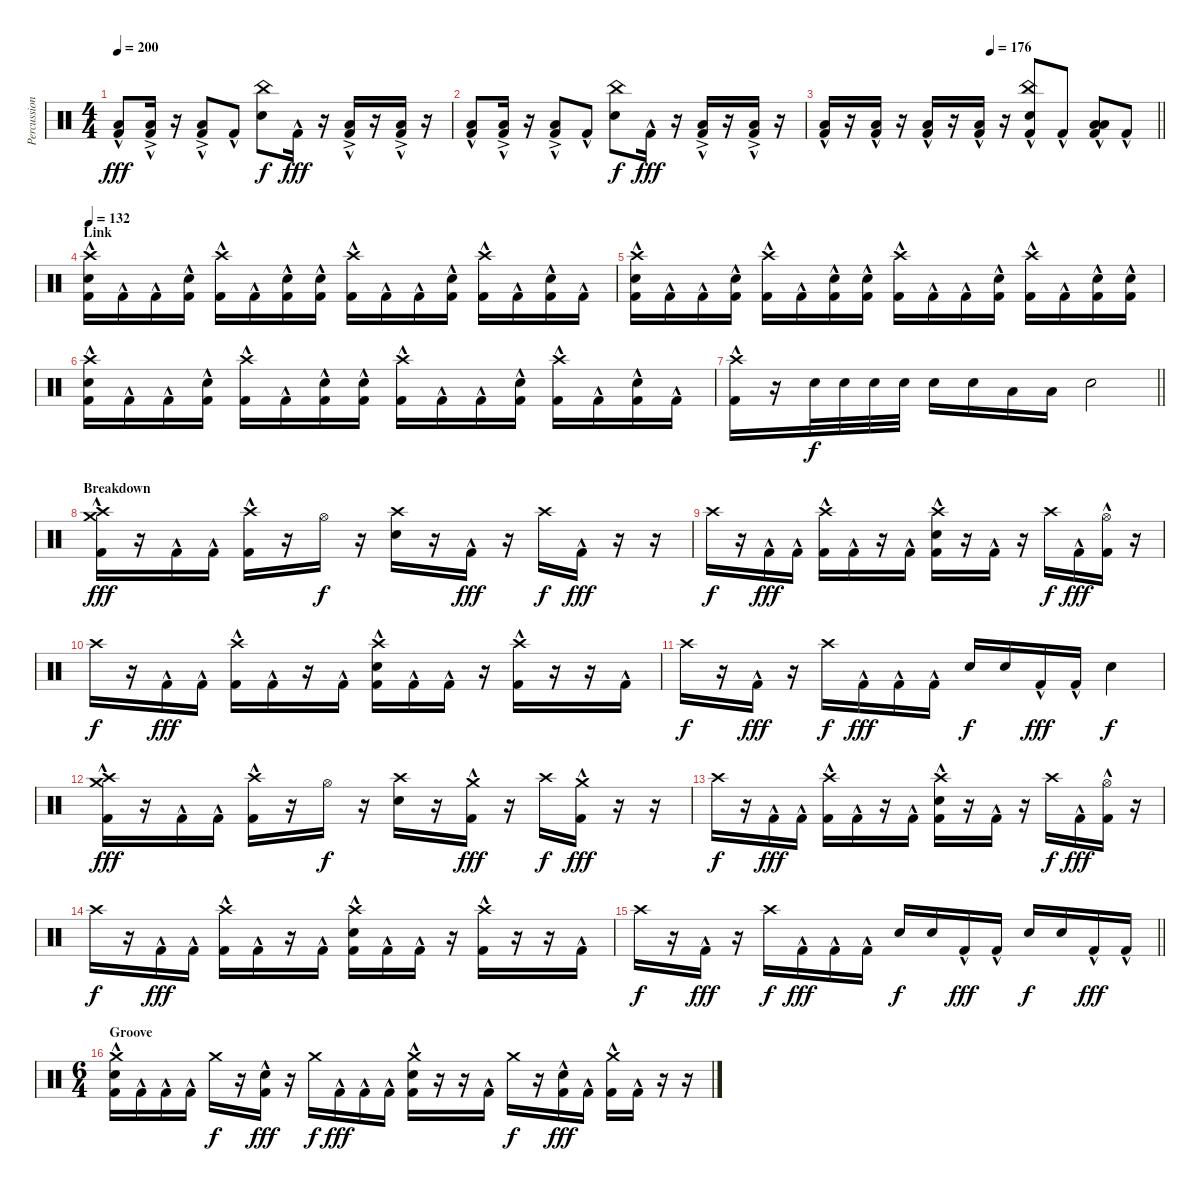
\track ("Percussion" "Percussion") {instrument percussion}
\staff {score}
\articulation defaults
\ts (4 4)
\tempo 200
\clef neutral
\ks c
("Low Tom (hit)" "Kick (hit) 2"{hac}).8{dy fff} ("Low Floor Tom (hit)"{ac} "Kick (hit) 2"{hac}).16 r.16 ("Low Tom (hit)"{ac} "Kick (hit) 2"{hac}).8 "Kick (hit) 2"{hac}.8 ("China (hit)" "Electric Snare (hit)").8{dy f} "Kick (hit) 2"{hac}.16{dy fff} r.16 ("Low Tom (hit)"{ac} "Kick (hit) 2"{hac}).16 r.16 ("Low Floor Tom (hit)"{ac} "Kick (hit) 2"{hac}).16 r.16 |
("Low Tom (hit)" "Kick (hit) 2"{hac}).8 ("Low Floor Tom (hit)"{ac} "Kick (hit) 2"{hac}).16 r.16 ("Low Tom (hit)"{ac} "Kick (hit) 2"{hac}).8 "Kick (hit) 2"{hac}.8 ("China (hit)" "Electric Snare (hit)").8{dy f} "Kick (hit) 2"{hac}.16{dy fff} r.16 ("Low Tom (hit)"{ac} "Kick (hit) 2"{hac}).16 r.16 ("Low Floor Tom (hit)"{ac} "Kick (hit) 2"{hac}).16 r.16 |
\tempo (176 0.5)
\barLineRight lightlight
("Low Tom (hit)" "Kick (hit) 2"{hac}).16 r.16 ("Low Floor Tom (hit)" "Kick (hit) 2"{hac}).16 r.16 ("Low Tom (hit)" "Kick (hit) 2"{hac}).16 r.16 ("Low Floor Tom (hit)" "Kick (hit) 2"{hac}).16 r.16 ("China (hit)" "Electric Snare (hit)" "Kick (hit) 2"{hac}).8 "Kick (hit) 2"{hac}.8 ("Low Tom (hit)" "Low Floor Tom (hit)" "Kick (hit) 2"{hac}).8 "Kick (hit) 2"{hac}.8 |
\section ("" "Link")
\tempo 132
("Crash high (hit)" "Electric Snare (hit)" "Kick (hit) 2"{hac}).16 "Kick (hit) 2"{hac}.16 "Kick (hit) 2"{hac}.16 ("Electric Snare (hit)" "Kick (hit) 2"{hac}).16 ("Crash high (hit)" "Kick (hit) 2"{hac}).16 "Kick (hit) 2"{hac}.16 ("Electric Snare (hit)" "Kick (hit) 2"{hac}).16 ("Electric Snare (hit)" "Kick (hit) 2"{hac}).16 ("Crash high (hit)" "Kick (hit) 2"{hac}).16 "Kick (hit) 2"{hac}.16 "Kick (hit) 2"{hac}.16 ("Electric Snare (hit)" "Kick (hit) 2"{hac}).16 ("Crash high (hit)" "Kick (hit) 2"{hac}).16 "Kick (hit) 2"{hac}.16 ("Electric Snare (hit)" "Kick (hit) 2"{hac}).16 "Kick (hit) 2"{hac}.16 |
("Crash high (hit)" "Electric Snare (hit)" "Kick (hit) 2"{hac}).16 "Kick (hit) 2"{hac}.16 "Kick (hit) 2"{hac}.16 ("Electric Snare (hit)" "Kick (hit) 2"{hac}).16 ("Crash high (hit)" "Kick (hit) 2"{hac}).16 "Kick (hit) 2"{hac}.16 ("Electric Snare (hit)" "Kick (hit) 2"{hac}).16 ("Electric Snare (hit)" "Kick (hit) 2"{hac}).16 ("Crash high (hit)" "Kick (hit) 2"{hac}).16 "Kick (hit) 2"{hac}.16 "Kick (hit) 2"{hac}.16 ("Electric Snare (hit)" "Kick (hit) 2"{hac}).16 ("Crash high (hit)" "Kick (hit) 2"{hac}).16 "Kick (hit) 2"{hac}.16 ("Electric Snare (hit)" "Kick (hit) 2"{hac}).16 ("Electric Snare (hit)" "Kick (hit) 2"{hac}).16 |
("Crash high (hit)" "Electric Snare (hit)" "Kick (hit) 2"{hac}).16 "Kick (hit) 2"{hac}.16 "Kick (hit) 2"{hac}.16 ("Electric Snare (hit)" "Kick (hit) 2"{hac}).16 ("Crash high (hit)" "Kick (hit) 2"{hac}).16 "Kick (hit) 2"{hac}.16 ("Electric Snare (hit)" "Kick (hit) 2"{hac}).16 ("Electric Snare (hit)" "Kick (hit) 2"{hac}).16 ("Crash high (hit)" "Kick (hit) 2"{hac}).16 "Kick (hit) 2"{hac}.16 "Kick (hit) 2"{hac}.16 ("Electric Snare (hit)" "Kick (hit) 2"{hac}).16 ("Crash high (hit)" "Kick (hit) 2"{hac}).16 "Kick (hit) 2"{hac}.16 ("Electric Snare (hit)" "Kick (hit) 2"{hac}).16 "Kick (hit) 2"{hac}.16 |
\barLineRight lightlight
("Crash high (hit)" "Kick (hit) 2"{hac}).16 r.16 "Electric Snare (hit)".32{dy f} "Electric Snare (hit)".32 "Electric Snare (hit)".32 "Electric Snare (hit)".32 "Electric Snare (hit)".16 "Electric Snare (hit)".16 "Low Tom (hit)".16 "Low Tom (hit)".16 "Electric Snare (hit)".2 |
\section ("" "Breakdown")
("Crash high (hit)" "Crash medium (hit)" "Kick (hit) 2"{hac}).16{dy fff} r.16 "Kick (hit) 2"{hac}.16 "Kick (hit) 2"{hac}.16 ("Crash high (hit)" "Kick (hit) 2"{hac}).16 r.16 "Hi-Hat (open)".16{dy f} r.16 ("Crash high (hit)" "Electric Snare (hit)").16 r.16 "Kick (hit) 2"{hac}.16{dy fff} r.16 "Crash high (hit)".16{dy f} "Kick (hit) 2"{hac}.16{dy fff} r.16 r.16 |
"Crash high (hit)".16{dy f} r.16 "Kick (hit) 2"{hac}.16{dy fff} "Kick (hit) 2"{hac}.16 ("Crash high (hit)" "Kick (hit) 2"{hac}).16 "Kick (hit) 2"{hac}.16 r.16 "Kick (hit) 2"{hac}.16 ("Crash high (hit)" "Electric Snare (hit)" "Kick (hit) 2"{hac}).16 r.16 "Kick (hit) 2"{hac}.16 r.16 "Crash high (hit)".16{dy f} "Kick (hit) 2"{hac}.16{dy fff} ("Hi-Hat (open)" "Kick (hit) 2"{hac}).16 r.16 |
"Crash high (hit)".16{dy f} r.16 "Kick (hit) 2"{hac}.16{dy fff} "Kick (hit) 2"{hac}.16 ("Crash high (hit)" "Kick (hit) 2"{hac}).16 "Kick (hit) 2"{hac}.16 r.16 "Kick (hit) 2"{hac}.16 ("Crash high (hit)" "Electric Snare (hit)" "Kick (hit) 2"{hac}).16 "Kick (hit) 2"{hac}.16 "Kick (hit) 2"{hac}.16 r.16 ("Crash high (hit)" "Kick (hit) 2"{hac}).16 r.16 r.16 "Kick (hit) 2"{hac}.16 |
"Crash high (hit)".16{dy f} r.16 "Kick (hit) 2"{hac}.16{dy fff} r.16 "Crash high (hit)".16{dy f} "Kick (hit) 2"{hac}.16{dy fff} "Kick (hit) 2"{hac}.16 "Kick (hit) 2"{hac}.16 "Electric Snare (hit)".16{dy f} "Electric Snare (hit)".16 "Kick (hit) 2"{hac}.16{dy fff} "Kick (hit) 2"{hac}.16 "Electric Snare (hit)".4{dy f} |
("Crash high (hit)" "Crash medium (hit)" "Kick (hit) 2"{hac}).16{dy fff} r.16 "Kick (hit) 2"{hac}.16 "Kick (hit) 2"{hac}.16 ("Crash high (hit)" "Kick (hit) 2"{hac}).16 r.16 "Hi-Hat (open)".16{dy f} r.16 ("Crash high (hit)" "Electric Snare (hit)").16 r.16 ("Kick (hit) 2"{hac} "Crash medium (hit)").16{dy fff} r.16 "Crash high (hit)".16{dy f} ("Kick (hit) 2"{hac} "Crash medium (hit)").16{dy fff} r.16 r.16 |
"Crash high (hit)".16{dy f} r.16 "Kick (hit) 2"{hac}.16{dy fff} "Kick (hit) 2"{hac}.16 ("Crash high (hit)" "Kick (hit) 2"{hac}).16 "Kick (hit) 2"{hac}.16 r.16 "Kick (hit) 2"{hac}.16 ("Crash high (hit)" "Electric Snare (hit)" "Kick (hit) 2"{hac}).16 r.16 "Kick (hit) 2"{hac}.16 r.16 "Crash high (hit)".16{dy f} "Kick (hit) 2"{hac}.16{dy fff} ("Hi-Hat (open)" "Kick (hit) 2"{hac}).16 r.16 |
"Crash high (hit)".16{dy f} r.16 "Kick (hit) 2"{hac}.16{dy fff} "Kick (hit) 2"{hac}.16 ("Crash high (hit)" "Kick (hit) 2"{hac}).16 "Kick (hit) 2"{hac}.16 r.16 "Kick (hit) 2"{hac}.16 ("Crash high (hit)" "Electric Snare (hit)" "Kick (hit) 2"{hac}).16 "Kick (hit) 2"{hac}.16 "Kick (hit) 2"{hac}.16 r.16 ("Crash high (hit)" "Kick (hit) 2"{hac}).16 r.16 r.16 "Kick (hit) 2"{hac}.16 |
\barLineRight lightlight "Crash high (hit)".16{dy f}
r.16 "Kick (hit) 2"{hac}.16{dy fff} r.16 "Crash high (hit)".16{dy f} "Kick (hit) 2"{hac}.16{dy fff} "Kick (hit) 2"{hac}.16 "Kick (hit) 2"{hac}.16 "Electric Snare (hit)".16{dy f} "Electric Snare (hit)".16 "Kick (hit) 2"{hac}.16{dy fff} "Kick (hit) 2"{hac}.16 "Electric Snare (hit)".16{dy f} "Electric Snare (hit)".16 "Kick (hit) 2"{hac}.16{dy fff} "Kick (hit) 2"{hac}.16 |
\ts (6 4)
\section ("" "Groove")
("Crash medium (hit)" "Electric Snare (hit)" "Kick (hit) 2"{hac}).16 "Kick (hit) 2"{hac}.16 "Kick (hit) 2"{hac}.16 "Kick (hit) 2"{hac}.16 "Crash medium (hit)".16{dy f} r.16 ("Electric Snare (hit)" "Kick (hit) 2"{hac}).16{dy fff} r.16 "Crash medium (hit)".16{dy f} "Kick (hit) 2"{hac}.16{dy fff} "Kick (hit) 2"{hac}.16 "Kick (hit) 2"{hac}.16 ("Crash medium (hit)" "Electric Snare (hit)" "Kick (hit) 2"{hac}).16 r.16 r.16 "Kick (hit) 2"{hac}.16 "Crash medium (hit)".16{dy f} r.16 ("Electric Snare (hit)" "Kick (hit) 2"{hac}).16{dy fff} "Kick (hit) 2"{hac}.16 ("Crash medium (hit)" "Kick (hit) 2"{hac}).16 "Kick (hit) 2"{hac}.16 r.16 r.16
